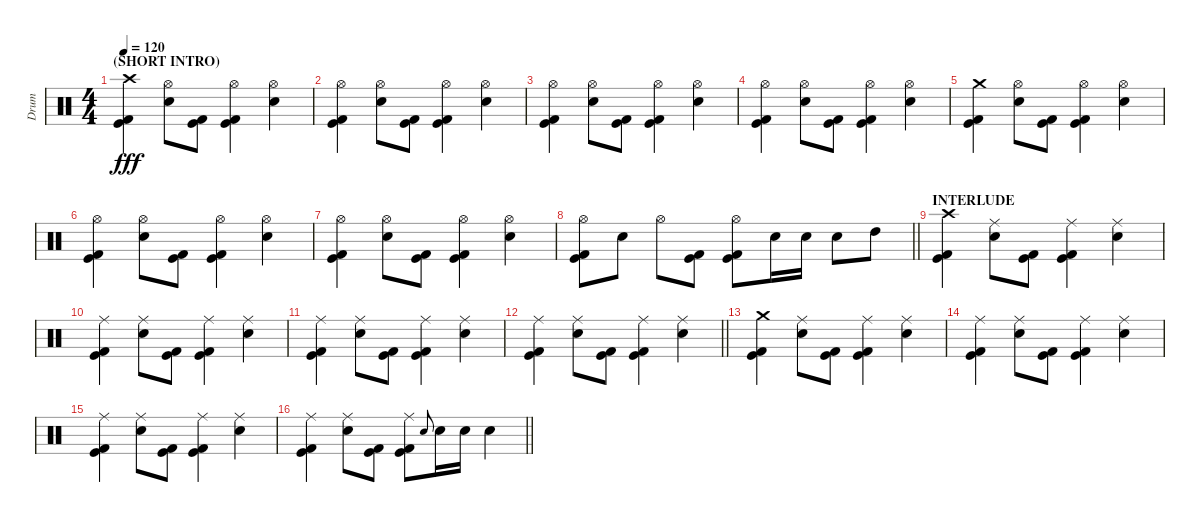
\track ("Drum" "Drum") {instrument percussion}
\staff {score}
\articulation defaults
\ts (4 4)
\section ("" "(SHORT INTRO)")
\tempo 120
\clef neutral
\ks c
("Kick (hit)" "Kick (hit) 2" "Crash high (hit)").4{dy fff} ("Snare (hit) 2" "Hi-Hat (open)").8 ("Kick (hit)" "Kick (hit) 2").8 ("Kick (hit)" "Kick (hit) 2" "Hi-Hat (open)").4 ("Snare (hit) 2" "Hi-Hat (open)").4 |
("Kick (hit)" "Kick (hit) 2" "Hi-Hat (open)").4 ("Snare (hit) 2" "Hi-Hat (open)").8 ("Kick (hit)" "Kick (hit) 2").8 ("Kick (hit)" "Kick (hit) 2" "Hi-Hat (open)").4 ("Snare (hit) 2" "Hi-Hat (open)").4 |
("Kick (hit)" "Kick (hit) 2" "Hi-Hat (open)").4 ("Snare (hit) 2" "Hi-Hat (open)").8 ("Kick (hit)" "Kick (hit) 2").8 ("Kick (hit)" "Kick (hit) 2" "Hi-Hat (open)").4 ("Snare (hit) 2" "Hi-Hat (open)").4 |
("Kick (hit)" "Kick (hit) 2" "Hi-Hat (open)").4 ("Snare (hit) 2" "Hi-Hat (open)").8 ("Kick (hit)" "Kick (hit) 2").8 ("Kick (hit)" "Kick (hit) 2" "Hi-Hat (open)").4 ("Snare (hit) 2" "Hi-Hat (open)").4 |
("Kick (hit)" "Kick (hit) 2" "Crash medium (hit)").4 ("Snare (hit) 2" "Hi-Hat (open)").8 ("Kick (hit)" "Kick (hit) 2").8 ("Kick (hit)" "Kick (hit) 2" "Hi-Hat (open)").4 ("Snare (hit) 2" "Hi-Hat (open)").4 |
("Kick (hit)" "Kick (hit) 2" "Hi-Hat (open)").4 ("Snare (hit) 2" "Hi-Hat (open)").8 ("Kick (hit)" "Kick (hit) 2").8 ("Kick (hit)" "Kick (hit) 2" "Hi-Hat (open)").4 ("Snare (hit) 2" "Hi-Hat (open)").4 |
("Kick (hit)" "Kick (hit) 2" "Hi-Hat (open)").4 ("Snare (hit) 2" "Hi-Hat (open)").8 ("Kick (hit)" "Kick (hit) 2").8 ("Kick (hit)" "Kick (hit) 2" "Hi-Hat (open)").4 ("Snare (hit) 2" "Hi-Hat (open)").4 |
\barLineRight lightlight
("Kick (hit)" "Kick (hit) 2" "Hi-Hat (open)").8 "Snare (hit) 2".8 "Hi-Hat (open)".8 ("Kick (hit)" "Kick (hit) 2").8 ("Kick (hit)" "Kick (hit) 2" "Hi-Hat (open)").8 "Snare (hit) 2".16 "Snare (hit) 2".16 "Snare (hit) 2".8 "High Tom (hit)".8 |
\section ("" "INTERLUDE")
("Kick (hit)" "Kick (hit) 2" "Crash high (hit)").4 ("Snare (hit) 2" "Ride (middle)").8 ("Kick (hit)" "Kick (hit) 2").8 ("Kick (hit)" "Kick (hit) 2" "Ride (middle)").4 ("Snare (hit) 2" "Ride (middle)").4 |
("Kick (hit)" "Kick (hit) 2" "Ride (middle)").4 ("Snare (hit) 2" "Ride (middle)").8 ("Kick (hit)" "Kick (hit) 2").8 ("Kick (hit)" "Kick (hit) 2" "Ride (middle)").4 ("Snare (hit) 2" "Ride (middle)").4 |
("Kick (hit)" "Kick (hit) 2" "Ride (middle)").4 ("Snare (hit) 2" "Ride (middle)").8 ("Kick (hit)" "Kick (hit) 2").8 ("Kick (hit)" "Kick (hit) 2" "Ride (middle)").4 ("Snare (hit) 2" "Ride (middle)").4 |
\barLineRight lightlight
("Kick (hit)" "Kick (hit) 2" "Ride (middle)").4 ("Snare (hit) 2" "Ride (middle)").8 ("Kick (hit)" "Kick (hit) 2").8 ("Kick (hit)" "Kick (hit) 2" "Ride (middle)").4 ("Snare (hit) 2" "Ride (middle)").4 |
("Kick (hit)" "Kick (hit) 2" "Crash medium (hit)").4 ("Snare (hit) 2" "Ride (middle)").8 ("Kick (hit)" "Kick (hit) 2").8 ("Kick (hit)" "Kick (hit) 2" "Ride (middle)").4 ("Snare (hit) 2" "Ride (middle)").4 |
("Kick (hit)" "Kick (hit) 2" "Ride (middle)").4 ("Snare (hit) 2" "Ride (middle)").8 ("Kick (hit)" "Kick (hit) 2").8 ("Kick (hit)" "Kick (hit) 2" "Ride (middle)").4 ("Snare (hit) 2" "Ride (middle)").4 |
("Kick (hit)" "Kick (hit) 2" "Ride (middle)").4 ("Snare (hit) 2" "Ride (middle)").8 ("Kick (hit)" "Kick (hit) 2").8 ("Kick (hit)" "Kick (hit) 2" "Ride (middle)").4 ("Snare (hit) 2" "Ride (middle)").4 |
\barLineRight lightlight
("Kick (hit)" "Kick (hit) 2" "Ride (middle)").4 ("Snare (hit) 2" "Ride (middle)").8 ("Kick (hit)" "Kick (hit) 2").8 ("Kick (hit)" "Kick (hit) 2" "Ride (middle)").8 "Snare (hit) 2"{h}.8{gr onbeat} "Snare (hit) 2".16 "Snare (hit) 2".16 "Snare (hit) 2".4
